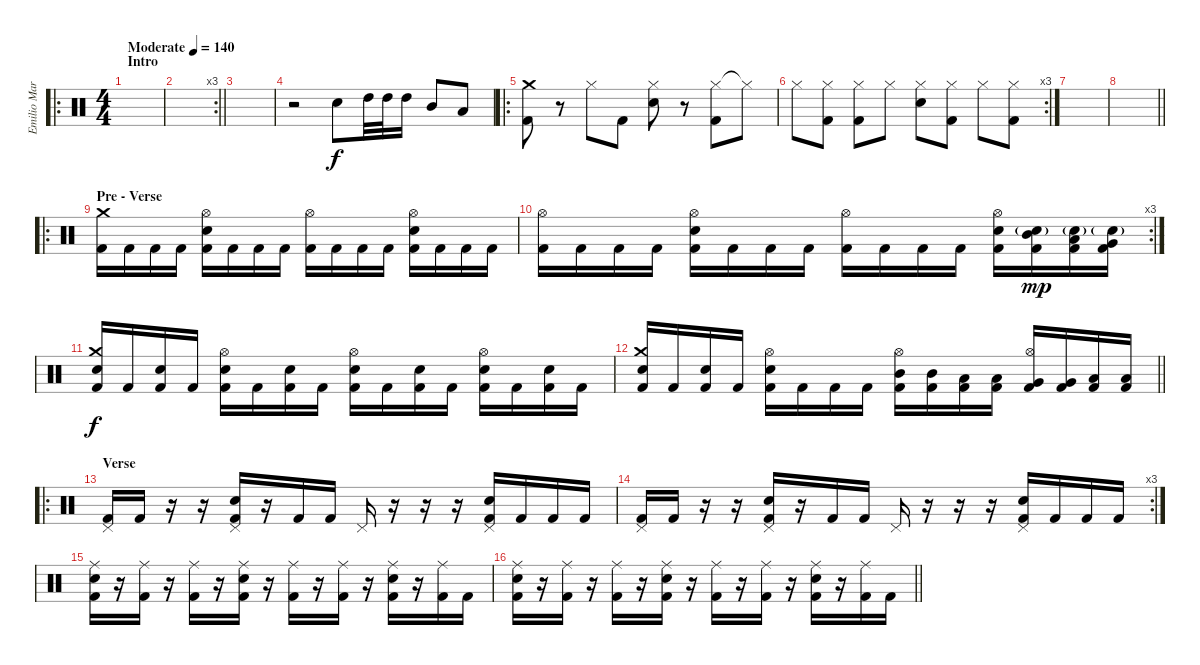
\track ("Emilio Marquez \"El sadistico\"" "Emilio Mar") {instrument percussion}
\staff {score}
\articulation defaults
\ro
\ts (4 4)
\section ("" "Intro")
\tempo (140 "Moderate")
\clef neutral
\ks c
|
\rc 3
\barLineRight lightlight
|
|
r.2 "Electric Snare (hit)".8 "High Tom (hit)".32 "High Tom (hit)".32 "High Tom (hit)".16 "Mid Tom (hit)".8 "Low Tom (hit)".8 |
\ro
("Crash medium (hit)" "Kick (hit) 2").8 r.8 "Hi-Hat (closed)".8 "Kick (hit) 2".8 ("Hi-Hat (closed)" "Electric Snare (hit)").8 r.8 ("Hi-Hat (closed)" "Kick (hit) 2").8 "Hi-Hat (closed)"{t}.8 |
\rc 3 "Hi-Hat (closed)".8
("Hi-Hat (closed)" "Kick (hit) 2").8 ("Hi-Hat (closed)" "Kick (hit) 2").8 "Hi-Hat (closed)".8 ("Hi-Hat (closed)" "Electric Snare (hit)").8 ("Hi-Hat (closed)" "Kick (hit) 2").8 "Hi-Hat (closed)".8 ("Hi-Hat (closed)" "Kick (hit) 2").8 |
|
\barLineRight lightlight
|
\ro
\section ("" "Pre - Verse")
("Crash medium (hit)" "Kick (hit) 2").16 "Kick (hit) 2".16 "Kick (hit) 2".16 "Kick (hit) 2".16 ("Hi-Hat (open)" "Electric Snare (hit)" "Kick (hit) 2").16 "Kick (hit) 2".16 "Kick (hit) 2".16 "Kick (hit) 2".16 ("Hi-Hat (open)" "Kick (hit) 2").16 "Kick (hit) 2".16 "Kick (hit) 2".16 "Kick (hit) 2".16 ("Hi-Hat (open)" "Electric Snare (hit)" "Kick (hit) 2").16 "Kick (hit) 2".16 "Kick (hit) 2".16 "Kick (hit) 2".16 |
\rc 3
("Hi-Hat (open)" "Kick (hit) 2").16 "Kick (hit) 2".16 "Kick (hit) 2".16 "Kick (hit) 2".16 ("Hi-Hat (open)" "Electric Snare (hit)" "Kick (hit) 2").16 "Kick (hit) 2".16 "Kick (hit) 2".16 "Kick (hit) 2".16 ("Hi-Hat (open)" "Kick (hit) 2").16 "Kick (hit) 2".16 "Kick (hit) 2".16 "Kick (hit) 2".16 ("Hi-Hat (open)" "Electric Snare (hit)" "Kick (hit) 2").16 ("Electric Snare (hit)"{g} "Mid Tom (hit)" "Kick (hit) 2").16{dy mp} ("Electric Snare (hit)"{g} "Low Tom (hit)" "Kick (hit) 2").16 ("Electric Snare (hit)"{g} "Very Low Tom (hit)" "Kick (hit) 2").16 |
("Crash medium (hit)" "Electric Snare (hit)" "Kick (hit) 2").16{dy f} "Kick (hit) 2".16 ("Electric Snare (hit)" "Kick (hit) 2").16 "Kick (hit) 2".16 ("Hi-Hat (open)" "Electric Snare (hit)" "Kick (hit) 2").16 "Kick (hit) 2".16 ("Electric Snare (hit)" "Kick (hit) 2").16 "Kick (hit) 2".16 ("Hi-Hat (open)" "Electric Snare (hit)" "Kick (hit) 2").16 "Kick (hit) 2".16 ("Electric Snare (hit)" "Kick (hit) 2").16 "Kick (hit) 2".16 ("Hi-Hat (open)" "Electric Snare (hit)" "Kick (hit) 2").16 "Kick (hit) 2".16 ("Electric Snare (hit)" "Kick (hit) 2").16 "Kick (hit) 2".16 |
\barLineRight lightlight
("Crash medium (hit)" "Electric Snare (hit)" "Kick (hit) 2").16 "Kick (hit) 2".16 ("Electric Snare (hit)" "Kick (hit) 2").16 "Kick (hit) 2".16 ("Hi-Hat (open)" "Electric Snare (hit)" "Kick (hit) 2").16 "Kick (hit) 2".16 "Kick (hit) 2".16 "Kick (hit) 2".16 ("Hi-Hat (open)" "Mid Tom (hit)" "Kick (hit) 2").16 ("Mid Tom (hit)" "Kick (hit) 2").16 ("Low Tom (hit)" "Kick (hit) 2").16 ("Low Tom (hit)" "Kick (hit) 2").16 ("Hi-Hat (open)" "Very Low Tom (hit)" "Kick (hit) 2").16 ("Very Low Tom (hit)" "Kick (hit) 2").16 ("Low Floor Tom (hit)" "Kick (hit) 2").16 ("Low Floor Tom (hit)" "Kick (hit) 2").16 |
\ro
\section ("" "Verse")
("Pedal Hi-Hat (hit)" "Kick (hit) 2").16 "Kick (hit) 2".16 r.16 r.16 ("Pedal Hi-Hat (hit)" "Electric Snare (hit)" "Kick (hit) 2").16 r.16 "Kick (hit) 2".16 "Kick (hit) 2".16 "Pedal Hi-Hat (hit)".16 r.16 r.16 r.16 ("Pedal Hi-Hat (hit)" "Electric Snare (hit)" "Kick (hit) 2").16 "Kick (hit) 2".16 "Kick (hit) 2".16 "Kick (hit) 2".16 |
\rc 3
("Pedal Hi-Hat (hit)" "Kick (hit) 2").16 "Kick (hit) 2".16 r.16 r.16 ("Pedal Hi-Hat (hit)" "Electric Snare (hit)" "Kick (hit) 2").16 r.16 "Kick (hit) 2".16 "Kick (hit) 2".16 "Pedal Hi-Hat (hit)".16 r.16 r.16 r.16 ("Pedal Hi-Hat (hit)" "Electric Snare (hit)" "Kick (hit) 2").16 "Kick (hit) 2".16 "Kick (hit) 2".16 "Kick (hit) 2".16 |
("Ride (middle)" "Electric Snare (hit)" "Kick (hit) 2").16 r.16 ("Ride (middle)" "Kick (hit) 2").16 r.16 ("Ride (middle)" "Kick (hit) 2").16 r.16 ("Ride (middle)" "Electric Snare (hit)" "Kick (hit) 2").16 r.16 ("Ride (middle)" "Kick (hit) 2").16 r.16 ("Ride (middle)" "Kick (hit) 2").16 r.16 ("Ride (middle)" "Electric Snare (hit)" "Kick (hit) 2").16 r.16 ("Ride (middle)" "Kick (hit) 2").16 "Kick (hit) 2".16 |
\barLineRight lightlight
("Ride (middle)" "Electric Snare (hit)" "Kick (hit) 2").16 r.16 ("Ride (middle)" "Kick (hit) 2").16 r.16 ("Ride (middle)" "Kick (hit) 2").16 r.16 ("Ride (middle)" "Electric Snare (hit)" "Kick (hit) 2").16 r.16 ("Ride (middle)" "Kick (hit) 2").16 r.16 ("Ride (middle)" "Kick (hit) 2").16 r.16 ("Ride (middle)" "Electric Snare (hit)" "Kick (hit) 2").16 r.16 ("Ride (middle)" "Kick (hit) 2").16 "Kick (hit) 2".16
